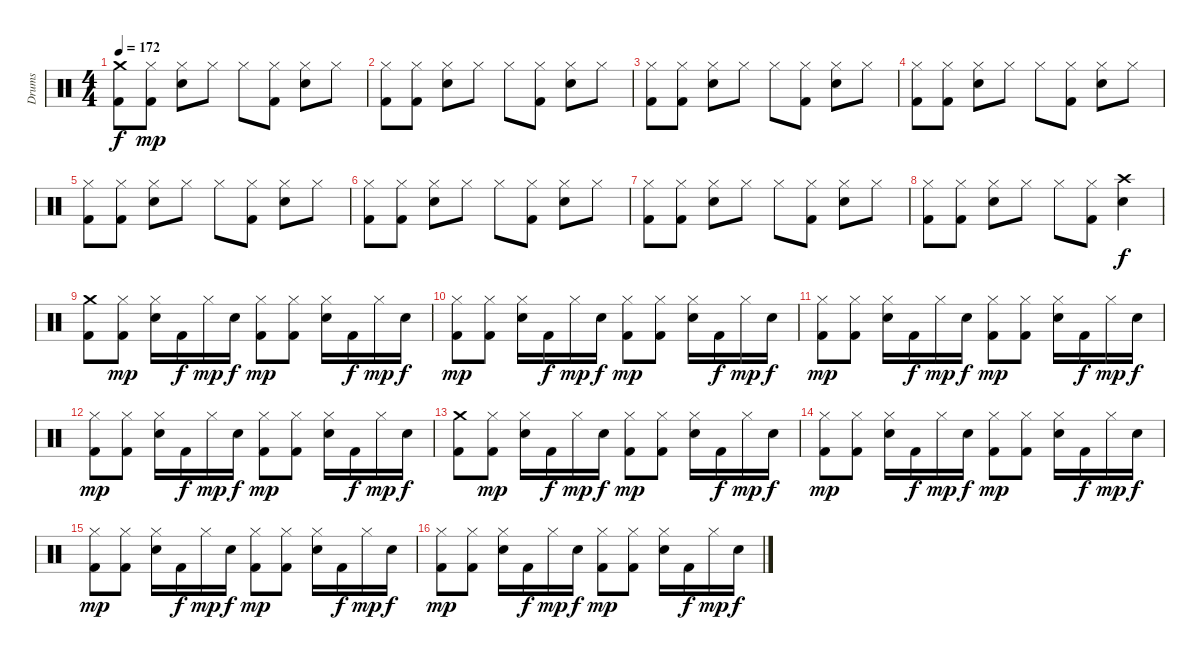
\track ("Drums" "Drums") {instrument percussion}
\staff {score}
\articulation defaults
\ts (4 4)
\tempo 172
\clef neutral
\ks c
("Crash medium (hit)" "Kick (hit) 2").8{dy f} ("Hi-Hat (closed)" "Kick (hit) 2").8{dy mp} ("Hi-Hat (closed)" "Snare (hit) 2").8 "Hi-Hat (closed)".8 "Hi-Hat (closed)".8 ("Hi-Hat (closed)" "Kick (hit) 2").8 ("Hi-Hat (closed)" "Snare (hit) 2").8 "Hi-Hat (closed)".8 |
("Hi-Hat (closed)" "Kick (hit) 2").8 ("Hi-Hat (closed)" "Kick (hit) 2").8 ("Hi-Hat (closed)" "Snare (hit) 2").8 "Hi-Hat (closed)".8 "Hi-Hat (closed)".8 ("Hi-Hat (closed)" "Kick (hit) 2").8 ("Hi-Hat (closed)" "Snare (hit) 2").8 "Hi-Hat (closed)".8 |
("Hi-Hat (closed)" "Kick (hit) 2").8 ("Hi-Hat (closed)" "Kick (hit) 2").8 ("Hi-Hat (closed)" "Snare (hit) 2").8 "Hi-Hat (closed)".8 "Hi-Hat (closed)".8 ("Hi-Hat (closed)" "Kick (hit) 2").8 ("Hi-Hat (closed)" "Snare (hit) 2").8 "Hi-Hat (closed)".8 |
("Hi-Hat (closed)" "Kick (hit) 2").8 ("Hi-Hat (closed)" "Kick (hit) 2").8 ("Hi-Hat (closed)" "Snare (hit) 2").8 "Hi-Hat (closed)".8 "Hi-Hat (closed)".8 ("Hi-Hat (closed)" "Kick (hit) 2").8 ("Hi-Hat (closed)" "Snare (hit) 2").8 "Hi-Hat (closed)".8 |
("Hi-Hat (closed)" "Kick (hit) 2").8 ("Hi-Hat (closed)" "Kick (hit) 2").8 ("Hi-Hat (closed)" "Snare (hit) 2").8 "Hi-Hat (closed)".8 "Hi-Hat (closed)".8 ("Hi-Hat (closed)" "Kick (hit) 2").8 ("Hi-Hat (closed)" "Snare (hit) 2").8 "Hi-Hat (closed)".8 |
("Hi-Hat (closed)" "Kick (hit) 2").8 ("Hi-Hat (closed)" "Kick (hit) 2").8 ("Hi-Hat (closed)" "Snare (hit) 2").8 "Hi-Hat (closed)".8 "Hi-Hat (closed)".8 ("Hi-Hat (closed)" "Kick (hit) 2").8 ("Hi-Hat (closed)" "Snare (hit) 2").8 "Hi-Hat (closed)".8 |
("Hi-Hat (closed)" "Kick (hit) 2").8 ("Hi-Hat (closed)" "Kick (hit) 2").8 ("Hi-Hat (closed)" "Snare (hit) 2").8 "Hi-Hat (closed)".8 "Hi-Hat (closed)".8 ("Hi-Hat (closed)" "Kick (hit) 2").8 ("Hi-Hat (closed)" "Snare (hit) 2").8 "Hi-Hat (closed)".8 |
("Hi-Hat (closed)" "Kick (hit) 2").8 ("Hi-Hat (closed)" "Kick (hit) 2").8 ("Hi-Hat (closed)" "Snare (hit) 2").8 "Hi-Hat (closed)".8 "Hi-Hat (closed)".8 ("Hi-Hat (closed)" "Kick (hit) 2").8 ("Crash high (hit)" "Snare (hit) 2").4{dy f} |
("Crash medium (hit)" "Kick (hit) 2").8 ("Hi-Hat (closed)" "Kick (hit) 2").8{dy mp} ("Hi-Hat (closed)" "Snare (hit) 2").16 "Kick (hit) 2".16{dy f} "Hi-Hat (closed)".16{dy mp} "Snare (hit) 2".16{dy f} ("Hi-Hat (closed)" "Kick (hit) 2").8{dy mp} ("Hi-Hat (closed)" "Kick (hit) 2").8 ("Hi-Hat (closed)" "Snare (hit) 2").16 "Kick (hit) 2".16{dy f} "Hi-Hat (closed)".16{dy mp} "Snare (hit) 2".16{dy f} |
("Hi-Hat (closed)" "Kick (hit) 2").8{dy mp} ("Hi-Hat (closed)" "Kick (hit) 2").8 ("Hi-Hat (closed)" "Snare (hit) 2").16 "Kick (hit) 2".16{dy f} "Hi-Hat (closed)".16{dy mp} "Snare (hit) 2".16{dy f} ("Hi-Hat (closed)" "Kick (hit) 2").8{dy mp} ("Hi-Hat (closed)" "Kick (hit) 2").8 ("Hi-Hat (closed)" "Snare (hit) 2").16 "Kick (hit) 2".16{dy f} "Hi-Hat (closed)".16{dy mp} "Snare (hit) 2".16{dy f} |
("Hi-Hat (closed)" "Kick (hit) 2").8{dy mp} ("Hi-Hat (closed)" "Kick (hit) 2").8 ("Hi-Hat (closed)" "Snare (hit) 2").16 "Kick (hit) 2".16{dy f} "Hi-Hat (closed)".16{dy mp} "Snare (hit) 2".16{dy f} ("Hi-Hat (closed)" "Kick (hit) 2").8{dy mp} ("Hi-Hat (closed)" "Kick (hit) 2").8 ("Hi-Hat (closed)" "Snare (hit) 2").16 "Kick (hit) 2".16{dy f} "Hi-Hat (closed)".16{dy mp} "Snare (hit) 2".16{dy f} |
("Hi-Hat (closed)" "Kick (hit) 2").8{dy mp} ("Hi-Hat (closed)" "Kick (hit) 2").8 ("Hi-Hat (closed)" "Snare (hit) 2").16 "Kick (hit) 2".16{dy f} "Hi-Hat (closed)".16{dy mp} "Snare (hit) 2".16{dy f} ("Hi-Hat (closed)" "Kick (hit) 2").8{dy mp} ("Hi-Hat (closed)" "Kick (hit) 2").8 ("Hi-Hat (closed)" "Snare (hit) 2").16 "Kick (hit) 2".16{dy f} "Hi-Hat (closed)".16{dy mp} "Snare (hit) 2".16{dy f} |
("Crash medium (hit)" "Kick (hit) 2").8 ("Hi-Hat (closed)" "Kick (hit) 2").8{dy mp} ("Hi-Hat (closed)" "Snare (hit) 2").16 "Kick (hit) 2".16{dy f} "Hi-Hat (closed)".16{dy mp} "Snare (hit) 2".16{dy f} ("Hi-Hat (closed)" "Kick (hit) 2").8{dy mp} ("Hi-Hat (closed)" "Kick (hit) 2").8 ("Hi-Hat (closed)" "Snare (hit) 2").16 "Kick (hit) 2".16{dy f} "Hi-Hat (closed)".16{dy mp} "Snare (hit) 2".16{dy f} |
("Hi-Hat (closed)" "Kick (hit) 2").8{dy mp} ("Hi-Hat (closed)" "Kick (hit) 2").8 ("Hi-Hat (closed)" "Snare (hit) 2").16 "Kick (hit) 2".16{dy f} "Hi-Hat (closed)".16{dy mp} "Snare (hit) 2".16{dy f} ("Hi-Hat (closed)" "Kick (hit) 2").8{dy mp} ("Hi-Hat (closed)" "Kick (hit) 2").8 ("Hi-Hat (closed)" "Snare (hit) 2").16 "Kick (hit) 2".16{dy f} "Hi-Hat (closed)".16{dy mp} "Snare (hit) 2".16{dy f} |
("Hi-Hat (closed)" "Kick (hit) 2").8{dy mp} ("Hi-Hat (closed)" "Kick (hit) 2").8 ("Hi-Hat (closed)" "Snare (hit) 2").16 "Kick (hit) 2".16{dy f} "Hi-Hat (closed)".16{dy mp} "Snare (hit) 2".16{dy f} ("Hi-Hat (closed)" "Kick (hit) 2").8{dy mp} ("Hi-Hat (closed)" "Kick (hit) 2").8 ("Hi-Hat (closed)" "Snare (hit) 2").16 "Kick (hit) 2".16{dy f} "Hi-Hat (closed)".16{dy mp} "Snare (hit) 2".16{dy f} |
("Hi-Hat (closed)" "Kick (hit) 2").8{dy mp} ("Hi-Hat (closed)" "Kick (hit) 2").8 ("Hi-Hat (closed)" "Snare (hit) 2").16 "Kick (hit) 2".16{dy f} "Hi-Hat (closed)".16{dy mp} "Snare (hit) 2".16{dy f} ("Hi-Hat (closed)" "Kick (hit) 2").8{dy mp} ("Hi-Hat (closed)" "Kick (hit) 2").8 ("Hi-Hat (closed)" "Snare (hit) 2").16 "Kick (hit) 2".16{dy f} "Hi-Hat (closed)".16{dy mp} "Snare (hit) 2".16{dy f}
